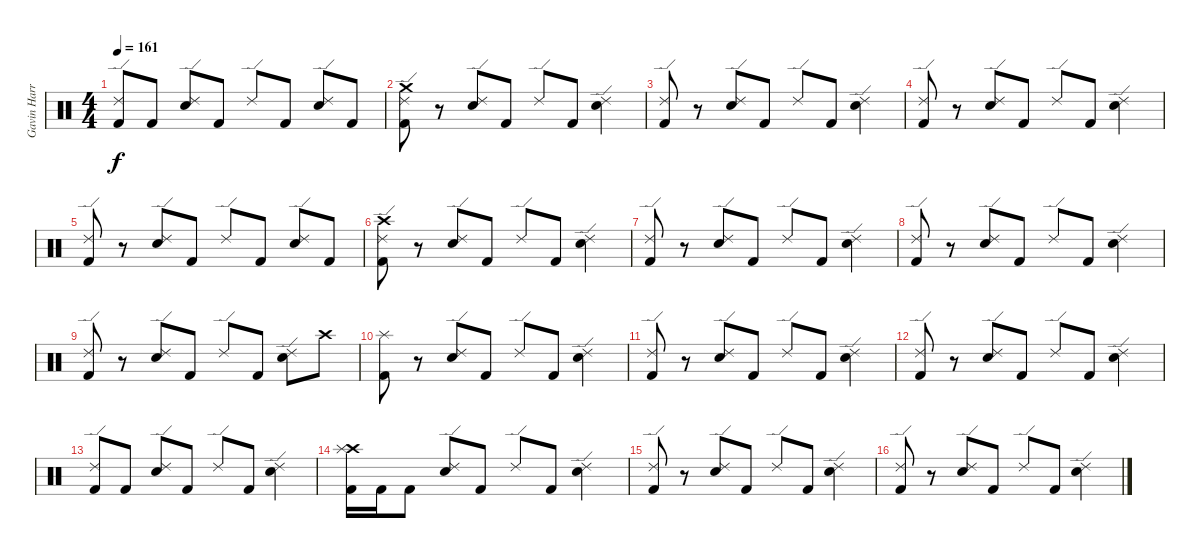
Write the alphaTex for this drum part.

\track ("Gavin Harrison (Drums)" "Gavin Harr") {instrument percussion}
\staff {score}
\articulation defaults
\ts (4 4)
\tempo 161
\clef neutral
\ks c
("Ride (edge) 2" "Kick (hit) 2").8{dy f} "Kick (hit) 2".8 ("Ride (edge) 2" "Electric Snare (hit)").8 "Kick (hit) 2".8 "Ride (edge) 2".8 "Kick (hit) 2".8 ("Ride (edge) 2" "Electric Snare (hit)").8 "Kick (hit) 2".8 |
("Crash medium (hit)" "Ride (edge) 2" "Kick (hit) 2").8 r.8 ("Ride (edge) 2" "Electric Snare (hit)").8 "Kick (hit) 2".8 "Ride (edge) 2".8 "Kick (hit) 2".8 ("Ride (edge) 2" "Electric Snare (hit)").4 |
("Ride (edge) 2" "Kick (hit) 2").8 r.8 ("Ride (edge) 2" "Electric Snare (hit)").8 "Kick (hit) 2".8 "Ride (edge) 2".8 "Kick (hit) 2".8 ("Ride (edge) 2" "Electric Snare (hit)").4 |
("Ride (edge) 2" "Kick (hit) 2").8 r.8 ("Ride (edge) 2" "Electric Snare (hit)").8 "Kick (hit) 2".8 "Ride (edge) 2".8 "Kick (hit) 2".8 ("Ride (edge) 2" "Electric Snare (hit)").4 |
("Ride (edge) 2" "Kick (hit) 2").8 r.8 ("Ride (edge) 2" "Electric Snare (hit)").8 "Kick (hit) 2".8 "Ride (edge) 2".8 "Kick (hit) 2".8 ("Ride (edge) 2" "Electric Snare (hit)").8 "Kick (hit) 2".8 |
("Crash high (hit)" "Ride (edge) 2" "Kick (hit) 2").8 r.8 ("Ride (edge) 2" "Electric Snare (hit)").8 "Kick (hit) 2".8 "Ride (edge) 2".8 "Kick (hit) 2".8 ("Ride (edge) 2" "Electric Snare (hit)").4 |
("Ride (edge) 2" "Kick (hit) 2").8 r.8 ("Ride (edge) 2" "Electric Snare (hit)").8 "Kick (hit) 2".8 "Ride (edge) 2".8 "Kick (hit) 2".8 ("Ride (edge) 2" "Electric Snare (hit)").4 |
("Ride (edge) 2" "Kick (hit) 2").8 r.8 ("Ride (edge) 2" "Electric Snare (hit)").8 "Kick (hit) 2".8 "Ride (edge) 2".8 "Kick (hit) 2".8 ("Ride (edge) 2" "Electric Snare (hit)").4 |
("Ride (edge) 2" "Kick (hit) 2").8 r.8 ("Ride (edge) 2" "Electric Snare (hit)").8 "Kick (hit) 2".8 "Ride (edge) 2".8 "Kick (hit) 2".8 ("Ride (edge) 2" "Electric Snare (hit)").8 "Crash high (hit)".8 |
("Splash (hit)" "Kick (hit) 2").8 r.8 ("Ride (edge) 2" "Electric Snare (hit)").8 "Kick (hit) 2".8 "Ride (edge) 2".8 "Kick (hit) 2".8 ("Ride (edge) 2" "Electric Snare (hit)").4 |
("Ride (edge) 2" "Kick (hit) 2").8 r.8 ("Ride (edge) 2" "Electric Snare (hit)").8 "Kick (hit) 2".8 "Ride (edge) 2".8 "Kick (hit) 2".8 ("Ride (edge) 2" "Electric Snare (hit)").4 |
("Ride (edge) 2" "Kick (hit) 2").8 r.8 ("Ride (edge) 2" "Electric Snare (hit)").8 "Kick (hit) 2".8 "Ride (edge) 2".8 "Kick (hit) 2".8 ("Ride (edge) 2" "Electric Snare (hit)").4 |
("Ride (edge) 2" "Kick (hit) 2").8 "Kick (hit) 2".8 ("Ride (edge) 2" "Electric Snare (hit)").8 "Kick (hit) 2".8 "Ride (edge) 2".8 "Kick (hit) 2".8 ("Ride (edge) 2" "Electric Snare (hit)").4 |
("Crash high (hit)" "Splash (hit)" "Kick (hit) 2").16 "Kick (hit) 2".16 "Kick (hit) 2".8 ("Ride (edge) 2" "Electric Snare (hit)").8 "Kick (hit) 2".8 "Ride (edge) 2".8 "Kick (hit) 2".8 ("Ride (edge) 2" "Electric Snare (hit)").4 |
("Ride (edge) 2" "Kick (hit) 2").8 r.8 ("Ride (edge) 2" "Electric Snare (hit)").8 "Kick (hit) 2".8 "Ride (edge) 2".8 "Kick (hit) 2".8 ("Ride (edge) 2" "Electric Snare (hit)").4 |
("Ride (edge) 2" "Kick (hit) 2").8 r.8 ("Ride (edge) 2" "Electric Snare (hit)").8 "Kick (hit) 2".8 "Ride (edge) 2".8 "Kick (hit) 2".8 ("Ride (edge) 2" "Electric Snare (hit)").4
